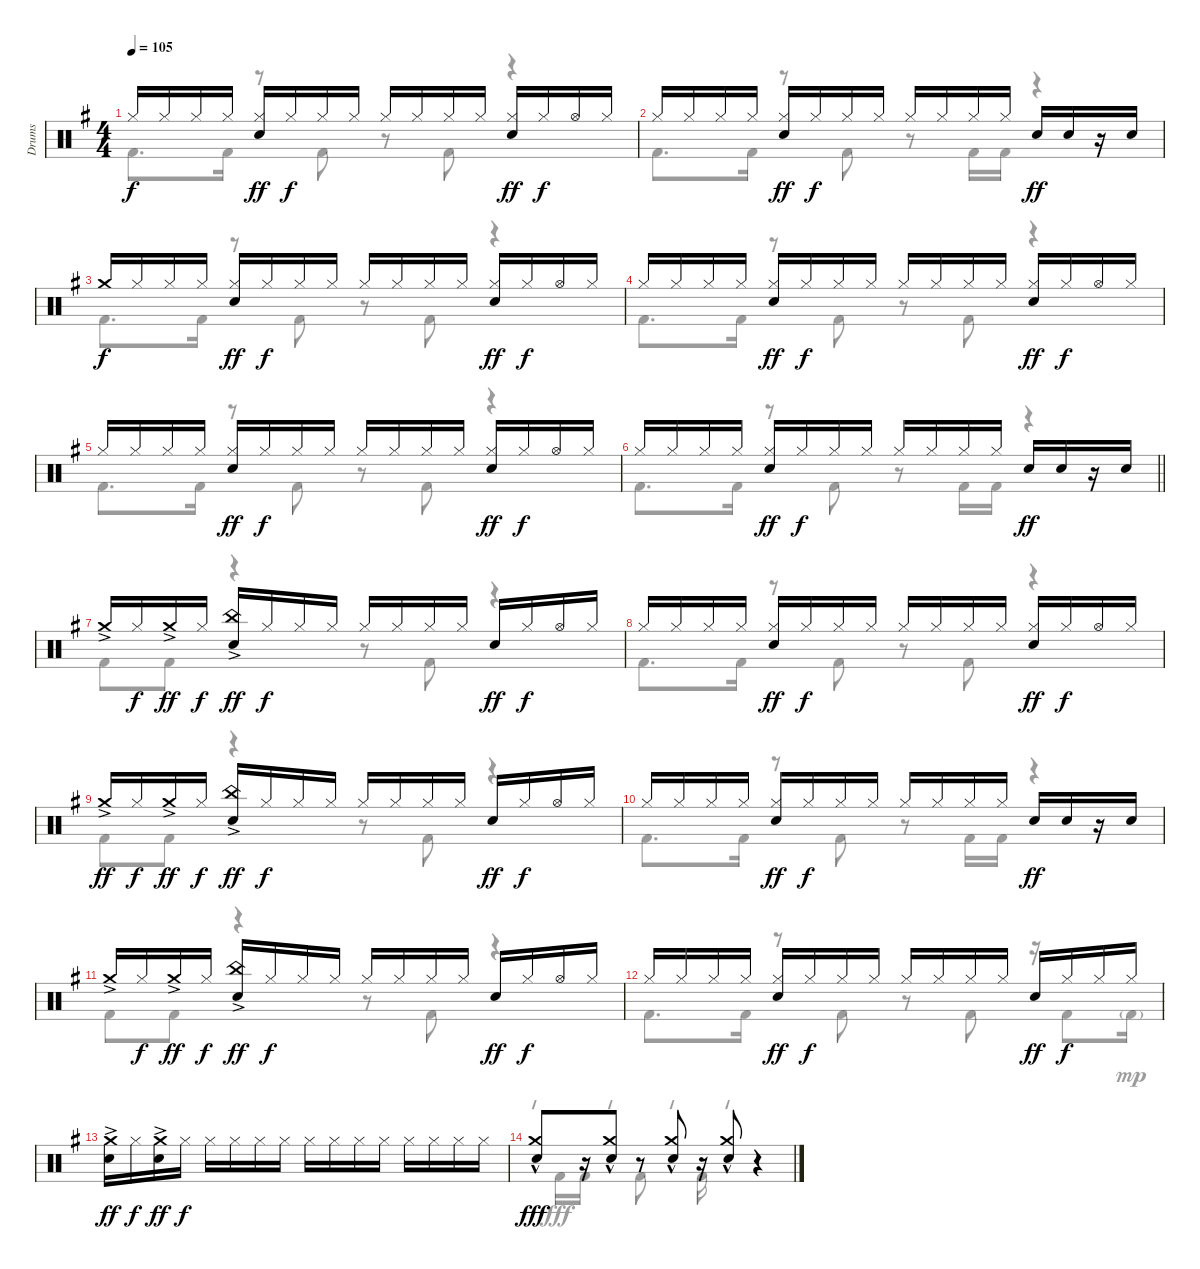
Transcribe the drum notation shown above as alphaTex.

\track ("Drums" "Drums") {instrument percussion}
\staff {score}
\articulation defaults
\voice
\ts (4 4)
\tempo 105
\clef neutral
\ks g "Hi-Hat (closed)".16{dy f} "Hi-Hat (closed)".16 "Hi-Hat (closed)".16 "Hi-Hat (closed)".16
("Hi-Hat (closed)" "Electric Snare (hit)").16{dy ff} "Hi-Hat (closed)".16{dy f} "Hi-Hat (closed)".16 "Hi-Hat (closed)".16 "Hi-Hat (closed)".16 "Hi-Hat (closed)".16 "Hi-Hat (closed)".16 "Hi-Hat (closed)".16 ("Hi-Hat (closed)" "Electric Snare (hit)").16{dy ff} "Hi-Hat (closed)".16{dy f} "Hi-Hat (open)".16 "Hi-Hat (closed)".16 |
"Hi-Hat (closed)".16 "Hi-Hat (closed)".16 "Hi-Hat (closed)".16 "Hi-Hat (closed)".16 ("Hi-Hat (closed)" "Electric Snare (hit)").16{dy ff} "Hi-Hat (closed)".16{dy f} "Hi-Hat (closed)".16 "Hi-Hat (closed)".16 "Hi-Hat (closed)".16 "Hi-Hat (closed)".16 "Hi-Hat (closed)".16 "Hi-Hat (closed)".16 "Electric Snare (hit)".16{dy ff} "Electric Snare (hit)".16 r.16 "Electric Snare (hit)".16 |
"Crash medium (hit)".16{dy f} "Hi-Hat (closed)".16 "Hi-Hat (closed)".16 "Hi-Hat (closed)".16 ("Hi-Hat (closed)" "Electric Snare (hit)").16{dy ff} "Hi-Hat (closed)".16{dy f} "Hi-Hat (closed)".16 "Hi-Hat (closed)".16 "Hi-Hat (closed)".16 "Hi-Hat (closed)".16 "Hi-Hat (closed)".16 "Hi-Hat (closed)".16 ("Hi-Hat (closed)" "Electric Snare (hit)").16{dy ff} "Hi-Hat (closed)".16{dy f} "Hi-Hat (open)".16 "Hi-Hat (closed)".16 |
"Hi-Hat (closed)".16 "Hi-Hat (closed)".16 "Hi-Hat (closed)".16 "Hi-Hat (closed)".16 ("Hi-Hat (closed)" "Electric Snare (hit)").16{dy ff} "Hi-Hat (closed)".16{dy f} "Hi-Hat (closed)".16 "Hi-Hat (closed)".16 "Hi-Hat (closed)".16 "Hi-Hat (closed)".16 "Hi-Hat (closed)".16 "Hi-Hat (closed)".16 ("Hi-Hat (closed)" "Electric Snare (hit)").16{dy ff} "Hi-Hat (closed)".16{dy f} "Hi-Hat (open)".16 "Hi-Hat (closed)".16 |
"Hi-Hat (closed)".16 "Hi-Hat (closed)".16 "Hi-Hat (closed)".16 "Hi-Hat (closed)".16 ("Hi-Hat (closed)" "Electric Snare (hit)").16{dy ff} "Hi-Hat (closed)".16{dy f} "Hi-Hat (closed)".16 "Hi-Hat (closed)".16 "Hi-Hat (closed)".16 "Hi-Hat (closed)".16 "Hi-Hat (closed)".16 "Hi-Hat (closed)".16 ("Hi-Hat (closed)" "Electric Snare (hit)").16{dy ff} "Hi-Hat (closed)".16{dy f} "Hi-Hat (open)".16 "Hi-Hat (closed)".16 |
\barLineRight lightlight "Hi-Hat (closed)".16 "Hi-Hat (closed)".16 "Hi-Hat (closed)".16 "Hi-Hat (closed)".16
("Hi-Hat (closed)" "Electric Snare (hit)").16{dy ff} "Hi-Hat (closed)".16{dy f} "Hi-Hat (closed)".16 "Hi-Hat (closed)".16 "Hi-Hat (closed)".16 "Hi-Hat (closed)".16 "Hi-Hat (closed)".16 "Hi-Hat (closed)".16 "Electric Snare (hit)".16{dy ff} "Electric Snare (hit)".16 r.16 "Electric Snare (hit)".16 |
"Crash medium (hit)"{ac}.16 "Hi-Hat (closed)".16{dy f} "Crash medium (hit)"{ac}.16{dy ff} "Hi-Hat (closed)".16{dy f} ("China (hit)"{ac} "Electric Snare (hit)").16{dy ff} "Hi-Hat (closed)".16{dy f} "Hi-Hat (closed)".16 "Hi-Hat (closed)".16 "Hi-Hat (closed)".16 "Hi-Hat (closed)".16 "Hi-Hat (closed)".16 "Hi-Hat (closed)".16 "Electric Snare (hit)".16{dy ff} "Hi-Hat (closed)".16{dy f} "Hi-Hat (open)".16 "Hi-Hat (closed)".16 |
"Hi-Hat (closed)".16 "Hi-Hat (closed)".16 "Hi-Hat (closed)".16 "Hi-Hat (closed)".16 ("Hi-Hat (closed)" "Electric Snare (hit)").16{dy ff} "Hi-Hat (closed)".16{dy f} "Hi-Hat (closed)".16 "Hi-Hat (closed)".16 "Hi-Hat (closed)".16 "Hi-Hat (closed)".16 "Hi-Hat (closed)".16 "Hi-Hat (closed)".16 ("Hi-Hat (closed)" "Electric Snare (hit)").16{dy ff} "Hi-Hat (closed)".16{dy f} "Hi-Hat (open)".16 "Hi-Hat (closed)".16 |
"Crash medium (hit)"{ac}.16{dy ff} "Hi-Hat (closed)".16{dy f} "Crash medium (hit)"{ac}.16{dy ff} "Hi-Hat (closed)".16{dy f} ("China (hit)"{ac} "Electric Snare (hit)").16{dy ff} "Hi-Hat (closed)".16{dy f} "Hi-Hat (closed)".16 "Hi-Hat (closed)".16 "Hi-Hat (closed)".16 "Hi-Hat (closed)".16 "Hi-Hat (closed)".16 "Hi-Hat (closed)".16 "Electric Snare (hit)".16{dy ff} "Hi-Hat (closed)".16{dy f} "Hi-Hat (open)".16 "Hi-Hat (closed)".16 |
"Hi-Hat (closed)".16 "Hi-Hat (closed)".16 "Hi-Hat (closed)".16 "Hi-Hat (closed)".16 ("Hi-Hat (closed)" "Electric Snare (hit)").16{dy ff} "Hi-Hat (closed)".16{dy f} "Hi-Hat (closed)".16 "Hi-Hat (closed)".16 "Hi-Hat (closed)".16 "Hi-Hat (closed)".16 "Hi-Hat (closed)".16 "Hi-Hat (closed)".16 "Electric Snare (hit)".16{dy ff} "Electric Snare (hit)".16 r.16 "Electric Snare (hit)".16 |
"Crash medium (hit)"{ac}.16 "Hi-Hat (closed)".16{dy f} "Crash medium (hit)"{ac}.16{dy ff} "Hi-Hat (closed)".16{dy f} ("China (hit)"{ac} "Electric Snare (hit)").16{dy ff} "Hi-Hat (closed)".16{dy f} "Hi-Hat (closed)".16 "Hi-Hat (closed)".16 "Hi-Hat (closed)".16 "Hi-Hat (closed)".16 "Hi-Hat (closed)".16 "Hi-Hat (closed)".16 "Electric Snare (hit)".16{dy ff} "Hi-Hat (closed)".16{dy f} "Hi-Hat (open)".16 "Hi-Hat (closed)".16 |
"Hi-Hat (closed)".16 "Hi-Hat (closed)".16 "Hi-Hat (closed)".16 "Hi-Hat (closed)".16 ("Hi-Hat (closed)" "Electric Snare (hit)").16{dy ff} "Hi-Hat (closed)".16{dy f} "Hi-Hat (closed)".16 "Hi-Hat (closed)".16 "Hi-Hat (closed)".16 "Hi-Hat (closed)".16 "Hi-Hat (closed)".16 "Hi-Hat (closed)".16 "Electric Snare (hit)".16{dy ff} "Hi-Hat (closed)".16{dy f} "Hi-Hat (closed)".16 "Hi-Hat (closed)".16 |
("Crash medium (hit)"{ac} "Electric Snare (hit)").16{dy ff} "Hi-Hat (closed)".16{dy f} ("Crash medium (hit)"{ac} "Electric Snare (hit)").16{dy ff} "Hi-Hat (closed)".16{dy f} "Hi-Hat (closed)".16 "Hi-Hat (closed)".16 "Hi-Hat (closed)".16 "Hi-Hat (closed)".16 "Hi-Hat (closed)".16 "Hi-Hat (closed)".16 "Hi-Hat (closed)".16 "Hi-Hat (closed)".16 "Hi-Hat (closed)".16 "Hi-Hat (closed)".16 "Hi-Hat (closed)".16 "Hi-Hat (closed)".16 |
("Crash medium (hit)"{hac} "Electric Snare (hit)").8{dy fff} r.16 ("Crash medium (hit)"{hac} "Electric Snare (hit)").8 r.8 ("Crash medium (hit)"{hac} "Electric Snare (hit)").8 r.16 ("Crash medium (hit)"{hac} "Electric Snare (hit)").8 r.4
\voice
\clef neutral
\ottava regular
\simile none
\ks g "Kick (hit) 2".8{d dy f} "Kick (hit) 2".16
r.8 "Kick (hit) 2".8 r.8 "Kick (hit) 2".8 r.4 |
"Kick (hit) 2".8{d} "Kick (hit) 2".16 r.8 "Kick (hit) 2".8 r.8 "Kick (hit) 2".16 "Kick (hit) 2".16 r.4 |
"Kick (hit) 2".8{d} "Kick (hit) 2".16 r.8 "Kick (hit) 2".8 r.8 "Kick (hit) 2".8 r.4 |
"Kick (hit) 2".8{d} "Kick (hit) 2".16 r.8 "Kick (hit) 2".8 r.8 "Kick (hit) 2".8 r.4 |
"Kick (hit) 2".8{d} "Kick (hit) 2".16 r.8 "Kick (hit) 2".8 r.8 "Kick (hit) 2".8 r.4 |
\barLineRight lightlight "Kick (hit) 2".8{d} "Kick (hit) 2".16
r.8 "Kick (hit) 2".8 r.8 "Kick (hit) 2".16 "Kick (hit) 2".16 r.4 |
"Kick (hit) 2".8 "Kick (hit) 2".8 r.4 r.8 "Kick (hit) 2".8 r.4 |
"Kick (hit) 2".8{d} "Kick (hit) 2".16 r.8 "Kick (hit) 2".8 r.8 "Kick (hit) 2".8 r.4 |
"Kick (hit) 2".8 "Kick (hit) 2".8 r.4 r.8 "Kick (hit) 2".8 r.4 |
"Kick (hit) 2".8{d} "Kick (hit) 2".16 r.8 "Kick (hit) 2".8 r.8 "Kick (hit) 2".16 "Kick (hit) 2".16 r.4 |
"Kick (hit) 2".8 "Kick (hit) 2".8 r.4 r.8 "Kick (hit) 2".8 r.4 |
"Kick (hit) 2".8{d} "Kick (hit) 2".16 r.8 "Kick (hit) 2".8 r.8 "Kick (hit) 2".8 r.16 "Kick (hit) 2".8 "Kick (hit) 2"{g}.16{dy mp} |
|
r.16 "Kick (hit) 2".16{dy fff} "Kick (hit) 2".16 r.8 "Kick (hit) 2".8 r.8 "Kick (hit) 2".16 r.8 r.4
